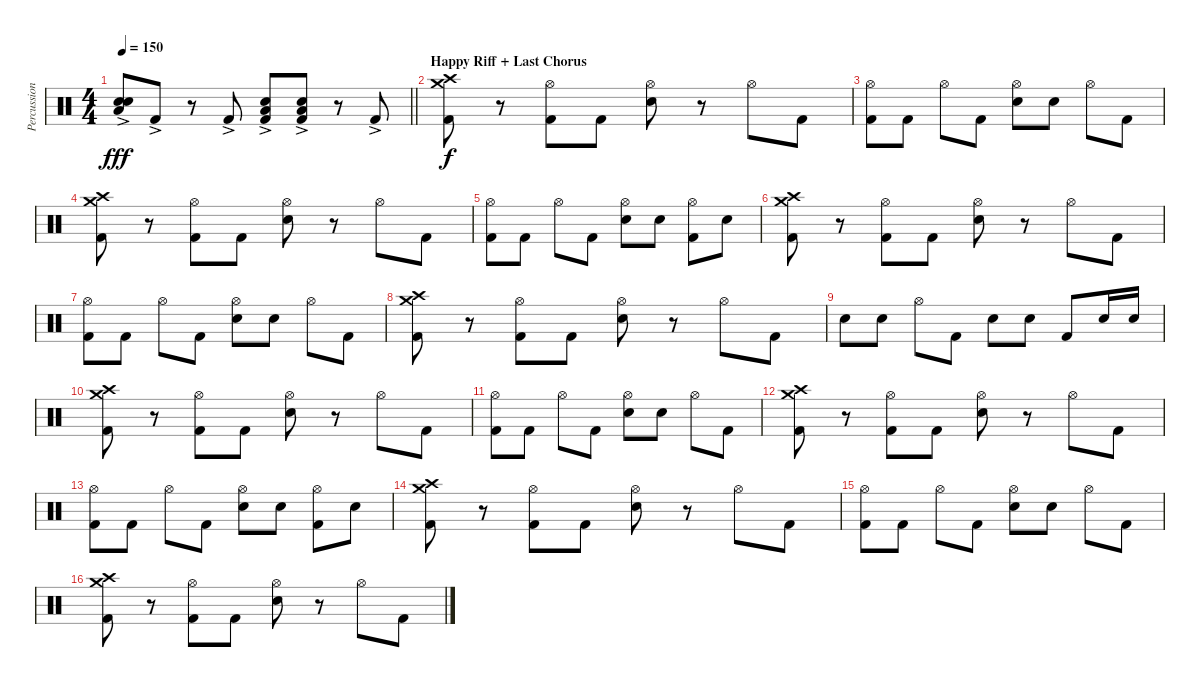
\track ("Percussion" "Percussion") {instrument percussion}
\staff {score}
\articulation defaults
\ts (4 4)
\tempo 150
\clef neutral
\barLineRight lightlight
\ks c
("Electric Snare (hit)"{ac} "Electric Snare (hit)"{ac} "Low Floor Tom (hit)"{ac}).8{dy fff} "Kick (hit) 2"{ac}.8 r.8 "Kick (hit) 2"{ac}.8 ("Low Floor Tom (hit)"{ac} "Electric Snare (hit)"{ac} "Kick (hit) 2"{ac}).8 ("Low Floor Tom (hit)"{ac} "Electric Snare (hit)"{ac} "Kick (hit) 2"{ac}).8 r.8 "Kick (hit) 2"{ac}.8 |
\section ("" "Happy Riff + Last Chorus")
("Crash high (hit)" "Crash medium (hit)" "Kick (hit) 2").8{dy f volume 15} r.8 ("Hi-Hat (open)" "Kick (hit) 2").8 "Kick (hit) 2".8 ("Hi-Hat (open)" "Electric Snare (hit)").8 r.8 "Hi-Hat (open)".8 "Kick (hit) 2".8 |
("Hi-Hat (open)" "Kick (hit) 2").8 "Kick (hit) 2".8 "Hi-Hat (open)".8 "Kick (hit) 2".8 ("Hi-Hat (open)" "Electric Snare (hit)").8 "Electric Snare (hit)".8 "Hi-Hat (open)".8 "Kick (hit) 2".8 |
("Crash high (hit)" "Crash medium (hit)" "Kick (hit) 2").8 r.8 ("Hi-Hat (open)" "Kick (hit) 2").8 "Kick (hit) 2".8 ("Hi-Hat (open)" "Electric Snare (hit)").8 r.8 "Hi-Hat (open)".8 "Kick (hit) 2".8 |
("Hi-Hat (open)" "Kick (hit) 2").8 "Kick (hit) 2".8 "Hi-Hat (open)".8 "Kick (hit) 2".8 ("Hi-Hat (open)" "Electric Snare (hit)").8 "Electric Snare (hit)".8 ("Hi-Hat (open)" "Kick (hit) 2").8 "Electric Snare (hit)".8 |
("Crash high (hit)" "Crash medium (hit)" "Kick (hit) 2").8 r.8 ("Hi-Hat (open)" "Kick (hit) 2").8 "Kick (hit) 2".8 ("Hi-Hat (open)" "Electric Snare (hit)").8 r.8 "Hi-Hat (open)".8 "Kick (hit) 2".8 |
("Hi-Hat (open)" "Kick (hit) 2").8 "Kick (hit) 2".8 "Hi-Hat (open)".8 "Kick (hit) 2".8 ("Hi-Hat (open)" "Electric Snare (hit)").8 "Electric Snare (hit)".8 "Hi-Hat (open)".8 "Kick (hit) 2".8 |
("Crash high (hit)" "Crash medium (hit)" "Kick (hit) 2").8 r.8 ("Hi-Hat (open)" "Kick (hit) 2").8 "Kick (hit) 2".8 ("Hi-Hat (open)" "Electric Snare (hit)").8 r.8 "Hi-Hat (open)".8 "Kick (hit) 2".8 |
"Electric Snare (hit)".8 "Electric Snare (hit)".8 "Hi-Hat (open)".8 "Kick (hit) 2".8 "Electric Snare (hit)".8 "Electric Snare (hit)".8 "Kick (hit) 2".8 "Electric Snare (hit)".16 "Electric Snare (hit)".16 |
("Crash high (hit)" "Crash medium (hit)" "Kick (hit) 2").8 r.8 ("Hi-Hat (open)" "Kick (hit) 2").8 "Kick (hit) 2".8 ("Hi-Hat (open)" "Electric Snare (hit)").8 r.8 "Hi-Hat (open)".8 "Kick (hit) 2".8 |
("Hi-Hat (open)" "Kick (hit) 2").8 "Kick (hit) 2".8 "Hi-Hat (open)".8 "Kick (hit) 2".8 ("Hi-Hat (open)" "Electric Snare (hit)").8 "Electric Snare (hit)".8 "Hi-Hat (open)".8 "Kick (hit) 2".8 |
("Crash high (hit)" "Crash medium (hit)" "Kick (hit) 2").8 r.8 ("Hi-Hat (open)" "Kick (hit) 2").8 "Kick (hit) 2".8 ("Hi-Hat (open)" "Electric Snare (hit)").8 r.8 "Hi-Hat (open)".8 "Kick (hit) 2".8 |
("Hi-Hat (open)" "Kick (hit) 2").8 "Kick (hit) 2".8 "Hi-Hat (open)".8 "Kick (hit) 2".8 ("Hi-Hat (open)" "Electric Snare (hit)").8 "Electric Snare (hit)".8 ("Hi-Hat (open)" "Kick (hit) 2").8 "Electric Snare (hit)".8 |
("Crash high (hit)" "Crash medium (hit)" "Kick (hit) 2").8 r.8 ("Hi-Hat (open)" "Kick (hit) 2").8 "Kick (hit) 2".8 ("Hi-Hat (open)" "Electric Snare (hit)").8 r.8 "Hi-Hat (open)".8 "Kick (hit) 2".8 |
("Hi-Hat (open)" "Kick (hit) 2").8 "Kick (hit) 2".8 "Hi-Hat (open)".8 "Kick (hit) 2".8 ("Hi-Hat (open)" "Electric Snare (hit)").8 "Electric Snare (hit)".8 "Hi-Hat (open)".8 "Kick (hit) 2".8 |
("Crash high (hit)" "Crash medium (hit)" "Kick (hit) 2").8 r.8 ("Hi-Hat (open)" "Kick (hit) 2").8 "Kick (hit) 2".8 ("Hi-Hat (open)" "Electric Snare (hit)").8 r.8 "Hi-Hat (open)".8 "Kick (hit) 2".8
